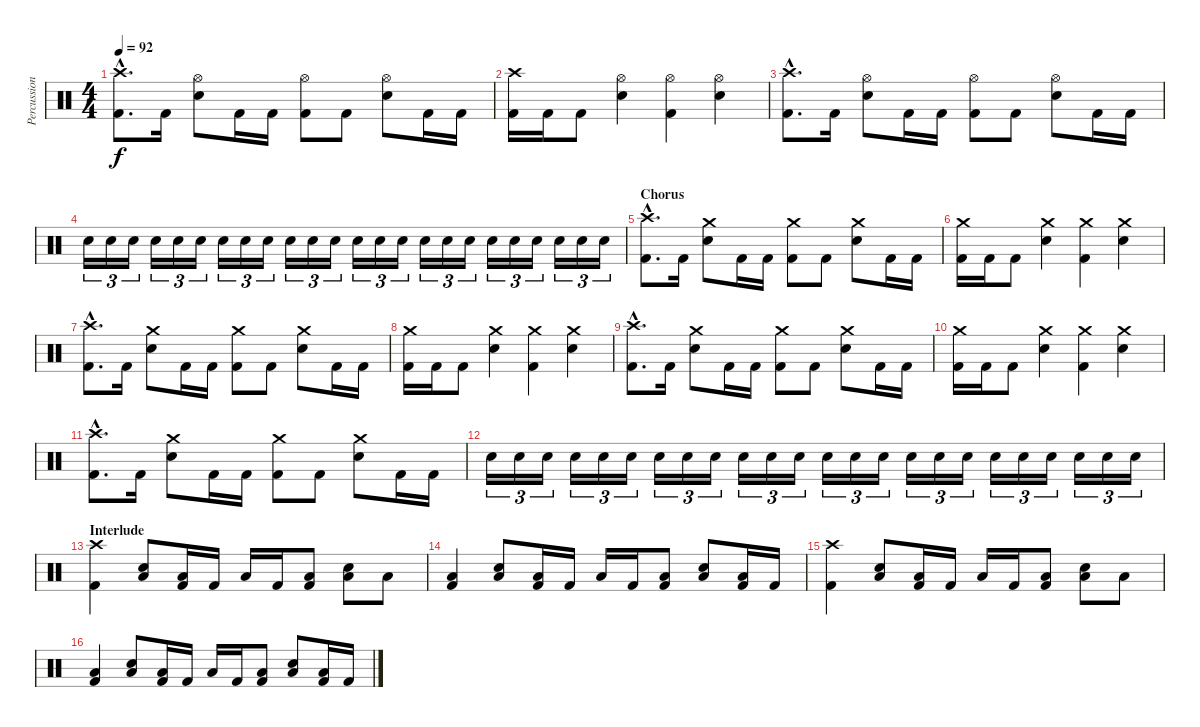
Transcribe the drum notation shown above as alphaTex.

\track ("Percussion" "Percussion") {instrument percussion}
\staff {score}
\articulation defaults
\ts (4 4)
\tempo 92
\clef neutral
\ks c
("Crash high (hit)"{hac} "Kick (hit) 2"{hac}).8{d dy f} "Kick (hit) 2".16 ("Hi-Hat (open)" "Electric Snare (hit)").8 "Kick (hit) 2".16 "Kick (hit) 2".16 ("Hi-Hat (open)" "Kick (hit) 2").8 "Kick (hit) 2".8 ("Hi-Hat (open)" "Electric Snare (hit)").8 "Kick (hit) 2".16 "Kick (hit) 2".16 |
("Crash high (hit)" "Kick (hit) 2").16 "Kick (hit) 2".16 "Kick (hit) 2".8 ("Hi-Hat (open)" "Electric Snare (hit)").4 ("Hi-Hat (open)" "Kick (hit) 2").4 ("Hi-Hat (open)" "Electric Snare (hit)").4 |
("Crash high (hit)"{hac} "Kick (hit) 2"{hac}).8{d} "Kick (hit) 2".16 ("Hi-Hat (open)" "Electric Snare (hit)").8 "Kick (hit) 2".16 "Kick (hit) 2".16 ("Hi-Hat (open)" "Kick (hit) 2").8 "Kick (hit) 2".8 ("Hi-Hat (open)" "Electric Snare (hit)").8 "Kick (hit) 2".16 "Kick (hit) 2".16 |
"Electric Snare (hit)".16{tu (3 2)} "Electric Snare (hit)".16{tu (3 2)} "Electric Snare (hit)".16{tu (3 2)} "Electric Snare (hit)".16{tu (3 2)} "Electric Snare (hit)".16{tu (3 2)} "Electric Snare (hit)".16{tu (3 2)} "Electric Snare (hit)".16{tu (3 2)} "Electric Snare (hit)".16{tu (3 2)} "Electric Snare (hit)".16{tu (3 2)} "Electric Snare (hit)".16{tu (3 2)} "Electric Snare (hit)".16{tu (3 2)} "Electric Snare (hit)".16{tu (3 2)} "Electric Snare (hit)".16{tu (3 2)} "Electric Snare (hit)".16{tu (3 2)} "Electric Snare (hit)".16{tu (3 2)} "Electric Snare (hit)".16{tu (3 2)} "Electric Snare (hit)".16{tu (3 2)} "Electric Snare (hit)".16{tu (3 2)} "Electric Snare (hit)".16{tu (3 2)} "Electric Snare (hit)".16{tu (3 2)} "Electric Snare (hit)".16{tu (3 2)} "Electric Snare (hit)".16{tu (3 2)} "Electric Snare (hit)".16{tu (3 2)} "Electric Snare (hit)".16{tu (3 2)} |
\section ("" "Chorus")
("Crash high (hit)"{hac} "Kick (hit) 2"{hac}).8{d} "Kick (hit) 2".16 ("Crash medium (hit)" "Electric Snare (hit)").8 "Kick (hit) 2".16 "Kick (hit) 2".16 ("Crash medium (hit)" "Kick (hit) 2").8 "Kick (hit) 2".8 ("Crash medium (hit)" "Electric Snare (hit)").8 "Kick (hit) 2".16 "Kick (hit) 2".16 |
("Crash medium (hit)" "Kick (hit) 2").16 "Kick (hit) 2".16 "Kick (hit) 2".8 ("Crash medium (hit)" "Electric Snare (hit)").4 ("Crash medium (hit)" "Kick (hit) 2").4 ("Crash medium (hit)" "Electric Snare (hit)").4 |
("Crash high (hit)"{hac} "Kick (hit) 2"{hac}).8{d} "Kick (hit) 2".16 ("Crash medium (hit)" "Electric Snare (hit)").8 "Kick (hit) 2".16 "Kick (hit) 2".16 ("Crash medium (hit)" "Kick (hit) 2").8 "Kick (hit) 2".8 ("Crash medium (hit)" "Electric Snare (hit)").8 "Kick (hit) 2".16 "Kick (hit) 2".16 |
("Crash medium (hit)" "Kick (hit) 2").16 "Kick (hit) 2".16 "Kick (hit) 2".8 ("Crash medium (hit)" "Electric Snare (hit)").4 ("Crash medium (hit)" "Kick (hit) 2").4 ("Crash medium (hit)" "Electric Snare (hit)").4 |
("Crash high (hit)"{hac} "Kick (hit) 2"{hac}).8{d} "Kick (hit) 2".16 ("Crash medium (hit)" "Electric Snare (hit)").8 "Kick (hit) 2".16 "Kick (hit) 2".16 ("Crash medium (hit)" "Kick (hit) 2").8 "Kick (hit) 2".8 ("Crash medium (hit)" "Electric Snare (hit)").8 "Kick (hit) 2".16 "Kick (hit) 2".16 |
("Crash medium (hit)" "Kick (hit) 2").16 "Kick (hit) 2".16 "Kick (hit) 2".8 ("Crash medium (hit)" "Electric Snare (hit)").4 ("Crash medium (hit)" "Kick (hit) 2").4 ("Crash medium (hit)" "Electric Snare (hit)").4 |
("Crash high (hit)"{hac} "Kick (hit) 2"{hac}).8{d} "Kick (hit) 2".16 ("Crash medium (hit)" "Electric Snare (hit)").8 "Kick (hit) 2".16 "Kick (hit) 2".16 ("Crash medium (hit)" "Kick (hit) 2").8 "Kick (hit) 2".8 ("Crash medium (hit)" "Electric Snare (hit)").8 "Kick (hit) 2".16 "Kick (hit) 2".16 |
"Electric Snare (hit)".16{tu (3 2)} "Electric Snare (hit)".16{tu (3 2)} "Electric Snare (hit)".16{tu (3 2)} "Electric Snare (hit)".16{tu (3 2)} "Electric Snare (hit)".16{tu (3 2)} "Electric Snare (hit)".16{tu (3 2)} "Electric Snare (hit)".16{tu (3 2)} "Electric Snare (hit)".16{tu (3 2)} "Electric Snare (hit)".16{tu (3 2)} "Electric Snare (hit)".16{tu (3 2)} "Electric Snare (hit)".16{tu (3 2)} "Electric Snare (hit)".16{tu (3 2)} "Electric Snare (hit)".16{tu (3 2)} "Electric Snare (hit)".16{tu (3 2)} "Electric Snare (hit)".16{tu (3 2)} "Electric Snare (hit)".16{tu (3 2)} "Electric Snare (hit)".16{tu (3 2)} "Electric Snare (hit)".16{tu (3 2)} "Electric Snare (hit)".16{tu (3 2)} "Electric Snare (hit)".16{tu (3 2)} "Electric Snare (hit)".16{tu (3 2)} "Electric Snare (hit)".16{tu (3 2)} "Electric Snare (hit)".16{tu (3 2)} "Electric Snare (hit)".16{tu (3 2)} |
\section ("" "Interlude")
("Crash high (hit)" "Kick (hit) 2").4 ("Low Tom (hit)" "Electric Snare (hit)").8 ("Low Tom (hit)" "Kick (hit) 2").16 "Kick (hit) 2".16 "Low Tom (hit)".16 "Kick (hit) 2".16 ("Low Tom (hit)" "Kick (hit) 2").8 ("Low Tom (hit)" "Electric Snare (hit)").8 "Low Tom (hit)".8 |
("Low Tom (hit)" "Kick (hit) 2").4 ("Low Tom (hit)" "Electric Snare (hit)").8 ("Low Tom (hit)" "Kick (hit) 2").16 "Kick (hit) 2".16 "Low Tom (hit)".16 "Kick (hit) 2".16 ("Low Tom (hit)" "Kick (hit) 2").8 ("Low Tom (hit)" "Electric Snare (hit)").8 ("Low Tom (hit)" "Kick (hit) 2").16 "Kick (hit) 2".16 |
("Crash high (hit)" "Kick (hit) 2").4 ("Low Tom (hit)" "Electric Snare (hit)").8 ("Low Tom (hit)" "Kick (hit) 2").16 "Kick (hit) 2".16 "Low Tom (hit)".16 "Kick (hit) 2".16 ("Low Tom (hit)" "Kick (hit) 2").8 ("Low Tom (hit)" "Electric Snare (hit)").8 "Low Tom (hit)".8 |
("Low Tom (hit)" "Kick (hit) 2").4 ("Low Tom (hit)" "Electric Snare (hit)").8 ("Low Tom (hit)" "Kick (hit) 2").16 "Kick (hit) 2".16 "Low Tom (hit)".16 "Kick (hit) 2".16 ("Low Tom (hit)" "Kick (hit) 2").8 ("Low Tom (hit)" "Electric Snare (hit)").8 ("Low Tom (hit)" "Kick (hit) 2").16 "Kick (hit) 2".16
